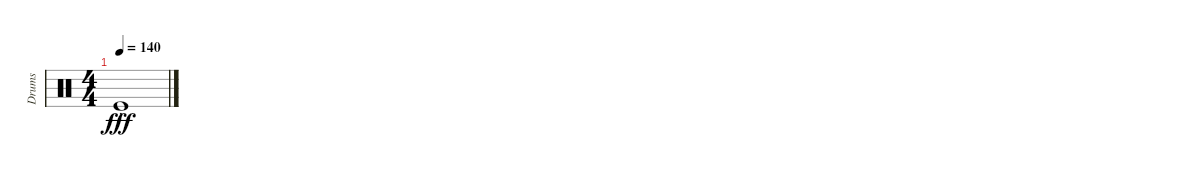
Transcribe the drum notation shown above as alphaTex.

\track ("Drums" "Drums") {instrument percussion}
\staff {score}
\articulation defaults
\ts (4 4)
\tempo 140
\clef neutral
\ks c "Kick (hit)"{st}.1{dy fff}
